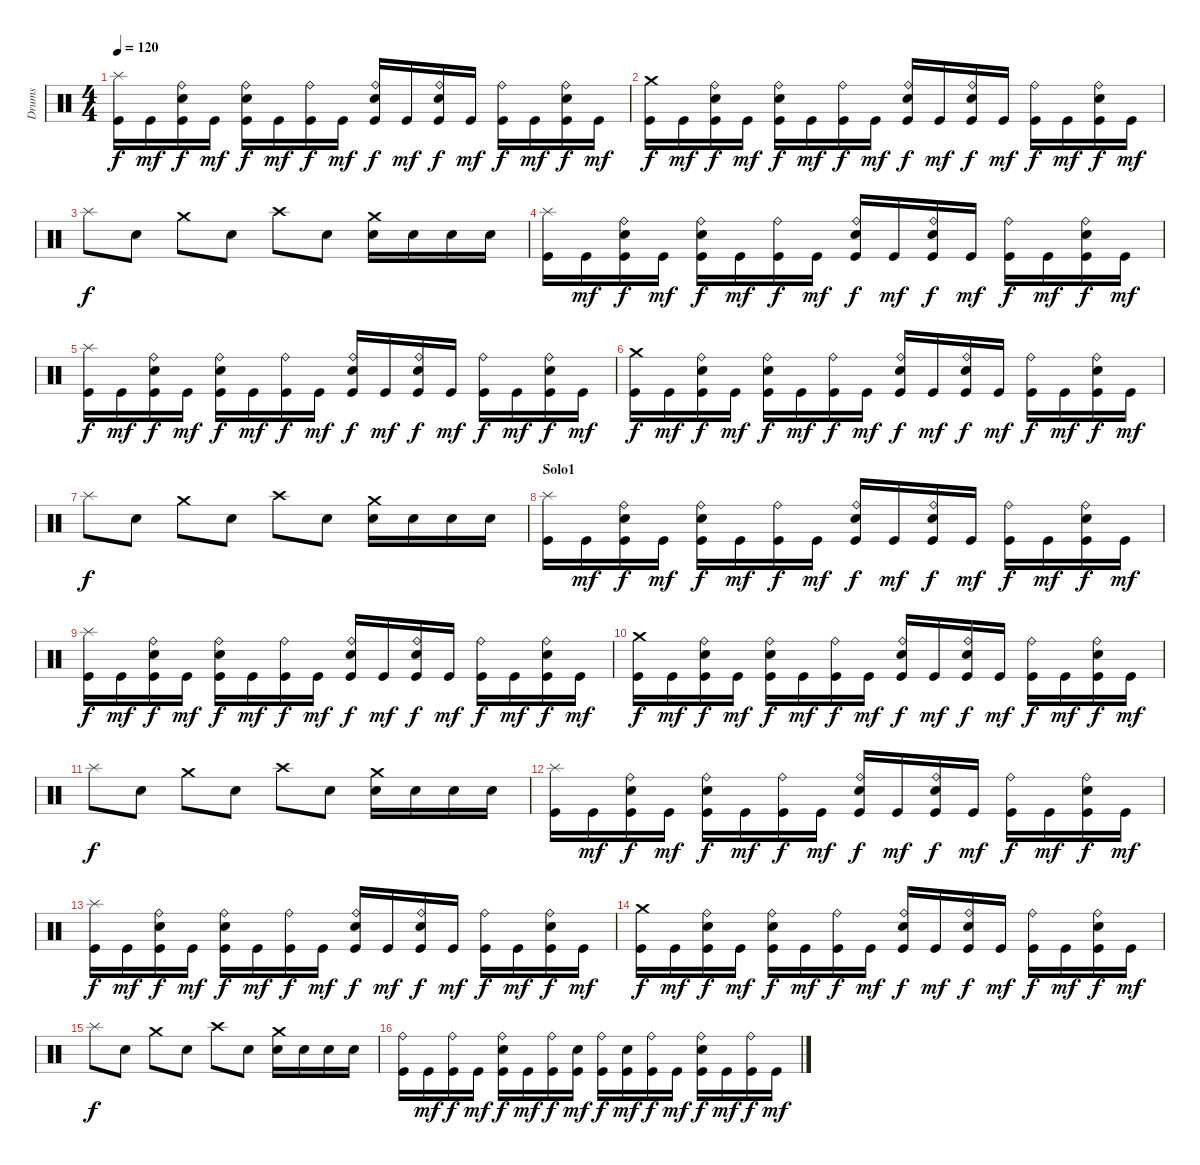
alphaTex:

\track ("Drums" "Drums") {instrument percussion}
\staff {score}
\articulation defaults
\ts (4 4)
\tempo 120
\clef neutral
\ks c
("Splash (hit)" "Kick (hit)").16{dy f} "Kick (hit)".16{dy mf} ("Ride (bell)" "Snare (hit) 2" "Kick (hit)").16{dy f} "Kick (hit)".16{dy mf} ("Ride (bell)" "Snare (hit) 2" "Kick (hit)").16{dy f} "Kick (hit)".16{dy mf} ("Ride (bell)" "Kick (hit)").16{dy f} "Kick (hit)".16{dy mf} ("Ride (bell)" "Snare (hit) 2" "Kick (hit)").16{dy f} "Kick (hit)".16{dy mf} ("Ride (bell)" "Snare (hit) 2" "Kick (hit)").16{dy f} "Kick (hit)".16{dy mf} ("Ride (bell)" "Kick (hit)").16{dy f} "Kick (hit)".16{dy mf} ("Ride (bell)" "Snare (hit) 2" "Kick (hit)").16{dy f} "Kick (hit)".16{dy mf} |
("Crash medium (hit)" "Kick (hit)").16{dy f} "Kick (hit)".16{dy mf} ("Ride (bell)" "Snare (hit) 2" "Kick (hit)").16{dy f} "Kick (hit)".16{dy mf} ("Ride (bell)" "Snare (hit) 2" "Kick (hit)").16{dy f} "Kick (hit)".16{dy mf} ("Ride (bell)" "Kick (hit)").16{dy f} "Kick (hit)".16{dy mf} ("Ride (bell)" "Snare (hit) 2" "Kick (hit)").16{dy f} "Kick (hit)".16{dy mf} ("Ride (bell)" "Snare (hit) 2" "Kick (hit)").16{dy f} "Kick (hit)".16{dy mf} ("Ride (bell)" "Kick (hit)").16{dy f} "Kick (hit)".16{dy mf} ("Ride (bell)" "Snare (hit) 2" "Kick (hit)").16{dy f} "Kick (hit)".16{dy mf} |
"Splash (hit)".8{dy f} "Snare (hit) 2".8 "Crash medium (hit)".8 "Snare (hit) 2".8 "Crash high (hit)".8 "Snare (hit) 2".8 ("Crash medium (hit)" "Snare (hit) 2").16 "Snare (hit) 2".16 "Snare (hit) 2".16 "Snare (hit) 2".16 |
("Splash (hit)" "Kick (hit)").16 "Kick (hit)".16{dy mf} ("Ride (bell)" "Snare (hit) 2" "Kick (hit)").16{dy f} "Kick (hit)".16{dy mf} ("Ride (bell)" "Snare (hit) 2" "Kick (hit)").16{dy f} "Kick (hit)".16{dy mf} ("Ride (bell)" "Kick (hit)").16{dy f} "Kick (hit)".16{dy mf} ("Ride (bell)" "Snare (hit) 2" "Kick (hit)").16{dy f} "Kick (hit)".16{dy mf} ("Ride (bell)" "Snare (hit) 2" "Kick (hit)").16{dy f} "Kick (hit)".16{dy mf} ("Ride (bell)" "Kick (hit)").16{dy f} "Kick (hit)".16{dy mf} ("Ride (bell)" "Snare (hit) 2" "Kick (hit)").16{dy f} "Kick (hit)".16{dy mf} |
("Splash (hit)" "Kick (hit)").16{dy f} "Kick (hit)".16{dy mf} ("Ride (bell)" "Snare (hit) 2" "Kick (hit)").16{dy f} "Kick (hit)".16{dy mf} ("Ride (bell)" "Snare (hit) 2" "Kick (hit)").16{dy f} "Kick (hit)".16{dy mf} ("Ride (bell)" "Kick (hit)").16{dy f} "Kick (hit)".16{dy mf} ("Ride (bell)" "Snare (hit) 2" "Kick (hit)").16{dy f} "Kick (hit)".16{dy mf} ("Ride (bell)" "Snare (hit) 2" "Kick (hit)").16{dy f} "Kick (hit)".16{dy mf} ("Ride (bell)" "Kick (hit)").16{dy f} "Kick (hit)".16{dy mf} ("Ride (bell)" "Snare (hit) 2" "Kick (hit)").16{dy f} "Kick (hit)".16{dy mf} |
("Crash medium (hit)" "Kick (hit)").16{dy f} "Kick (hit)".16{dy mf} ("Ride (bell)" "Snare (hit) 2" "Kick (hit)").16{dy f} "Kick (hit)".16{dy mf} ("Ride (bell)" "Snare (hit) 2" "Kick (hit)").16{dy f} "Kick (hit)".16{dy mf} ("Ride (bell)" "Kick (hit)").16{dy f} "Kick (hit)".16{dy mf} ("Ride (bell)" "Snare (hit) 2" "Kick (hit)").16{dy f} "Kick (hit)".16{dy mf} ("Ride (bell)" "Snare (hit) 2" "Kick (hit)").16{dy f} "Kick (hit)".16{dy mf} ("Ride (bell)" "Kick (hit)").16{dy f} "Kick (hit)".16{dy mf} ("Ride (bell)" "Snare (hit) 2" "Kick (hit)").16{dy f} "Kick (hit)".16{dy mf} |
"Splash (hit)".8{dy f} "Snare (hit) 2".8 "Crash medium (hit)".8 "Snare (hit) 2".8 "Crash high (hit)".8 "Snare (hit) 2".8 ("Crash medium (hit)" "Snare (hit) 2").16 "Snare (hit) 2".16 "Snare (hit) 2".16 "Snare (hit) 2".16 |
\section ("" "Solo1")
("Splash (hit)" "Kick (hit)").16 "Kick (hit)".16{dy mf} ("Ride (bell)" "Snare (hit) 2" "Kick (hit)").16{dy f} "Kick (hit)".16{dy mf} ("Ride (bell)" "Snare (hit) 2" "Kick (hit)").16{dy f} "Kick (hit)".16{dy mf} ("Ride (bell)" "Kick (hit)").16{dy f} "Kick (hit)".16{dy mf} ("Ride (bell)" "Snare (hit) 2" "Kick (hit)").16{dy f} "Kick (hit)".16{dy mf} ("Ride (bell)" "Snare (hit) 2" "Kick (hit)").16{dy f} "Kick (hit)".16{dy mf} ("Ride (bell)" "Kick (hit)").16{dy f} "Kick (hit)".16{dy mf} ("Ride (bell)" "Snare (hit) 2" "Kick (hit)").16{dy f} "Kick (hit)".16{dy mf} |
("Splash (hit)" "Kick (hit)").16{dy f} "Kick (hit)".16{dy mf} ("Ride (bell)" "Snare (hit) 2" "Kick (hit)").16{dy f} "Kick (hit)".16{dy mf} ("Ride (bell)" "Snare (hit) 2" "Kick (hit)").16{dy f} "Kick (hit)".16{dy mf} ("Ride (bell)" "Kick (hit)").16{dy f} "Kick (hit)".16{dy mf} ("Ride (bell)" "Snare (hit) 2" "Kick (hit)").16{dy f} "Kick (hit)".16{dy mf} ("Ride (bell)" "Snare (hit) 2" "Kick (hit)").16{dy f} "Kick (hit)".16{dy mf} ("Ride (bell)" "Kick (hit)").16{dy f} "Kick (hit)".16{dy mf} ("Ride (bell)" "Snare (hit) 2" "Kick (hit)").16{dy f} "Kick (hit)".16{dy mf} |
("Crash medium (hit)" "Kick (hit)").16{dy f} "Kick (hit)".16{dy mf} ("Ride (bell)" "Snare (hit) 2" "Kick (hit)").16{dy f} "Kick (hit)".16{dy mf} ("Ride (bell)" "Snare (hit) 2" "Kick (hit)").16{dy f} "Kick (hit)".16{dy mf} ("Ride (bell)" "Kick (hit)").16{dy f} "Kick (hit)".16{dy mf} ("Ride (bell)" "Snare (hit) 2" "Kick (hit)").16{dy f} "Kick (hit)".16{dy mf} ("Ride (bell)" "Snare (hit) 2" "Kick (hit)").16{dy f} "Kick (hit)".16{dy mf} ("Ride (bell)" "Kick (hit)").16{dy f} "Kick (hit)".16{dy mf} ("Ride (bell)" "Snare (hit) 2" "Kick (hit)").16{dy f} "Kick (hit)".16{dy mf} |
"Splash (hit)".8{dy f} "Snare (hit) 2".8 "Crash medium (hit)".8 "Snare (hit) 2".8 "Crash high (hit)".8 "Snare (hit) 2".8 ("Crash medium (hit)" "Snare (hit) 2").16 "Snare (hit) 2".16 "Snare (hit) 2".16 "Snare (hit) 2".16 |
("Splash (hit)" "Kick (hit)").16 "Kick (hit)".16{dy mf} ("Ride (bell)" "Snare (hit) 2" "Kick (hit)").16{dy f} "Kick (hit)".16{dy mf} ("Ride (bell)" "Snare (hit) 2" "Kick (hit)").16{dy f} "Kick (hit)".16{dy mf} ("Ride (bell)" "Kick (hit)").16{dy f} "Kick (hit)".16{dy mf} ("Ride (bell)" "Snare (hit) 2" "Kick (hit)").16{dy f} "Kick (hit)".16{dy mf} ("Ride (bell)" "Snare (hit) 2" "Kick (hit)").16{dy f} "Kick (hit)".16{dy mf} ("Ride (bell)" "Kick (hit)").16{dy f} "Kick (hit)".16{dy mf} ("Ride (bell)" "Snare (hit) 2" "Kick (hit)").16{dy f} "Kick (hit)".16{dy mf} |
("Splash (hit)" "Kick (hit)").16{dy f} "Kick (hit)".16{dy mf} ("Ride (bell)" "Snare (hit) 2" "Kick (hit)").16{dy f} "Kick (hit)".16{dy mf} ("Ride (bell)" "Snare (hit) 2" "Kick (hit)").16{dy f} "Kick (hit)".16{dy mf} ("Ride (bell)" "Kick (hit)").16{dy f} "Kick (hit)".16{dy mf} ("Ride (bell)" "Snare (hit) 2" "Kick (hit)").16{dy f} "Kick (hit)".16{dy mf} ("Ride (bell)" "Snare (hit) 2" "Kick (hit)").16{dy f} "Kick (hit)".16{dy mf} ("Ride (bell)" "Kick (hit)").16{dy f} "Kick (hit)".16{dy mf} ("Ride (bell)" "Snare (hit) 2" "Kick (hit)").16{dy f} "Kick (hit)".16{dy mf} |
("Crash medium (hit)" "Kick (hit)").16{dy f} "Kick (hit)".16{dy mf} ("Ride (bell)" "Snare (hit) 2" "Kick (hit)").16{dy f} "Kick (hit)".16{dy mf} ("Ride (bell)" "Snare (hit) 2" "Kick (hit)").16{dy f} "Kick (hit)".16{dy mf} ("Ride (bell)" "Kick (hit)").16{dy f} "Kick (hit)".16{dy mf} ("Ride (bell)" "Snare (hit) 2" "Kick (hit)").16{dy f} "Kick (hit)".16{dy mf} ("Ride (bell)" "Snare (hit) 2" "Kick (hit)").16{dy f} "Kick (hit)".16{dy mf} ("Ride (bell)" "Kick (hit)").16{dy f} "Kick (hit)".16{dy mf} ("Ride (bell)" "Snare (hit) 2" "Kick (hit)").16{dy f} "Kick (hit)".16{dy mf} |
"Splash (hit)".8{dy f} "Snare (hit) 2".8 "Crash medium (hit)".8 "Snare (hit) 2".8 "Crash high (hit)".8 "Snare (hit) 2".8 ("Crash medium (hit)" "Snare (hit) 2").16 "Snare (hit) 2".16 "Snare (hit) 2".16 "Snare (hit) 2".16 |
("Ride (bell)" "Kick (hit)").16 "Kick (hit)".16{dy mf} ("Ride (bell)" "Kick (hit)").16{dy f} "Kick (hit)".16{dy mf} ("Ride (bell)" "Snare (hit) 2" "Kick (hit)").16{dy f} "Kick (hit)".16{dy mf} ("Ride (bell)" "Kick (hit)").16{dy f} ("Snare (hit) 2" "Kick (hit)").16{dy mf} ("Ride (bell)" "Kick (hit)").16{dy f} ("Snare (hit) 2" "Kick (hit)").16{dy mf} ("Ride (bell)" "Kick (hit)").16{dy f} "Kick (hit)".16{dy mf} ("Ride (bell)" "Snare (hit) 2" "Kick (hit)").16{dy f} "Kick (hit)".16{dy mf} ("Ride (bell)" "Kick (hit)").16{dy f} "Kick (hit)".16{dy mf}
